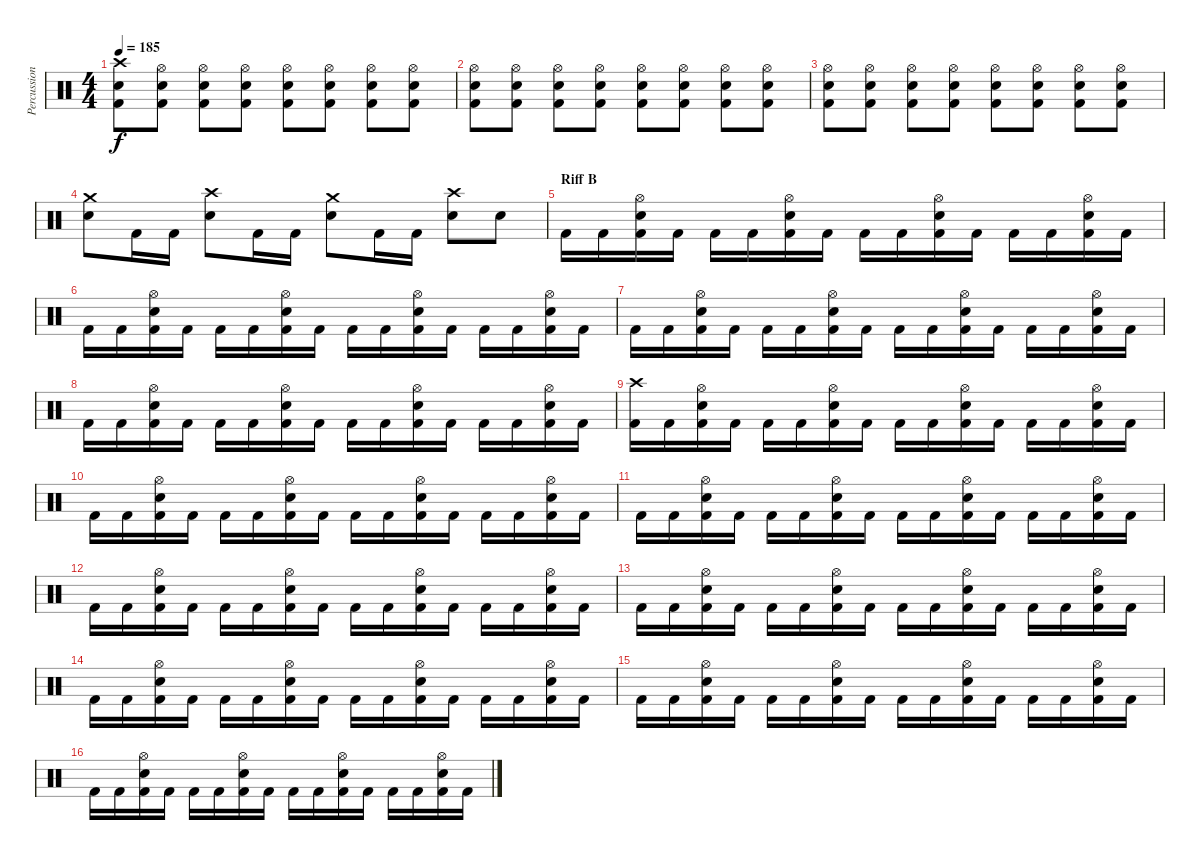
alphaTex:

\track ("Percussions" "Percussion") {instrument percussion}
\staff {score}
\articulation defaults
\ts (4 4)
\tempo 185
\clef neutral
\ks c
("Crash high (hit)" "Snare (hit) 2" "Kick (hit) 2").8{dy f} ("Hi-Hat (open)" "Snare (hit) 2" "Kick (hit) 2").8 ("Hi-Hat (open)" "Snare (hit) 2" "Kick (hit) 2").8 ("Hi-Hat (open)" "Snare (hit) 2" "Kick (hit) 2").8 ("Hi-Hat (open)" "Snare (hit) 2" "Kick (hit) 2").8 ("Hi-Hat (open)" "Snare (hit) 2" "Kick (hit) 2").8 ("Hi-Hat (open)" "Snare (hit) 2" "Kick (hit) 2").8 ("Hi-Hat (open)" "Snare (hit) 2" "Kick (hit) 2").8 |
("Hi-Hat (open)" "Snare (hit) 2" "Kick (hit) 2").8 ("Hi-Hat (open)" "Snare (hit) 2" "Kick (hit) 2").8 ("Hi-Hat (open)" "Snare (hit) 2" "Kick (hit) 2").8 ("Hi-Hat (open)" "Snare (hit) 2" "Kick (hit) 2").8 ("Hi-Hat (open)" "Snare (hit) 2" "Kick (hit) 2").8 ("Hi-Hat (open)" "Snare (hit) 2" "Kick (hit) 2").8 ("Hi-Hat (open)" "Snare (hit) 2" "Kick (hit) 2").8 ("Hi-Hat (open)" "Snare (hit) 2" "Kick (hit) 2").8 |
("Hi-Hat (open)" "Snare (hit) 2" "Kick (hit) 2").8 ("Hi-Hat (open)" "Snare (hit) 2" "Kick (hit) 2").8 ("Hi-Hat (open)" "Snare (hit) 2" "Kick (hit) 2").8 ("Hi-Hat (open)" "Snare (hit) 2" "Kick (hit) 2").8 ("Hi-Hat (open)" "Snare (hit) 2" "Kick (hit) 2").8 ("Hi-Hat (open)" "Snare (hit) 2" "Kick (hit) 2").8 ("Hi-Hat (open)" "Snare (hit) 2" "Kick (hit) 2").8 ("Hi-Hat (open)" "Snare (hit) 2" "Kick (hit) 2").8 |
("Crash medium (hit)" "Snare (hit) 2").8 "Kick (hit) 2".16 "Kick (hit) 2".16 ("Crash high (hit)" "Snare (hit) 2").8 "Kick (hit) 2".16 "Kick (hit) 2".16 ("Crash medium (hit)" "Snare (hit) 2").8 "Kick (hit) 2".16 "Kick (hit) 2".16 ("Crash high (hit)" "Snare (hit) 2").8 "Snare (hit) 2".8 |
\section ("" "Riff B")
"Kick (hit) 2".16 "Kick (hit) 2".16 ("Hi-Hat (open)" "Snare (hit) 2" "Kick (hit) 2").16 "Kick (hit) 2".16 "Kick (hit) 2".16 "Kick (hit) 2".16 ("Hi-Hat (open)" "Snare (hit) 2" "Kick (hit) 2").16 "Kick (hit) 2".16 "Kick (hit) 2".16 "Kick (hit) 2".16 ("Hi-Hat (open)" "Snare (hit) 2" "Kick (hit) 2").16 "Kick (hit) 2".16 "Kick (hit) 2".16 "Kick (hit) 2".16 ("Hi-Hat (open)" "Snare (hit) 2" "Kick (hit) 2").16 "Kick (hit) 2".16 |
"Kick (hit) 2".16 "Kick (hit) 2".16 ("Hi-Hat (open)" "Snare (hit) 2" "Kick (hit) 2").16 "Kick (hit) 2".16 "Kick (hit) 2".16 "Kick (hit) 2".16 ("Hi-Hat (open)" "Snare (hit) 2" "Kick (hit) 2").16 "Kick (hit) 2".16 "Kick (hit) 2".16 "Kick (hit) 2".16 ("Hi-Hat (open)" "Snare (hit) 2" "Kick (hit) 2").16 "Kick (hit) 2".16 "Kick (hit) 2".16 "Kick (hit) 2".16 ("Hi-Hat (open)" "Snare (hit) 2" "Kick (hit) 2").16 "Kick (hit) 2".16 |
"Kick (hit) 2".16 "Kick (hit) 2".16 ("Hi-Hat (open)" "Snare (hit) 2" "Kick (hit) 2").16 "Kick (hit) 2".16 "Kick (hit) 2".16 "Kick (hit) 2".16 ("Hi-Hat (open)" "Snare (hit) 2" "Kick (hit) 2").16 "Kick (hit) 2".16 "Kick (hit) 2".16 "Kick (hit) 2".16 ("Hi-Hat (open)" "Snare (hit) 2" "Kick (hit) 2").16 "Kick (hit) 2".16 "Kick (hit) 2".16 "Kick (hit) 2".16 ("Hi-Hat (open)" "Snare (hit) 2" "Kick (hit) 2").16 "Kick (hit) 2".16 |
"Kick (hit) 2".16 "Kick (hit) 2".16 ("Hi-Hat (open)" "Snare (hit) 2" "Kick (hit) 2").16 "Kick (hit) 2".16 "Kick (hit) 2".16 "Kick (hit) 2".16 ("Hi-Hat (open)" "Snare (hit) 2" "Kick (hit) 2").16 "Kick (hit) 2".16 "Kick (hit) 2".16 "Kick (hit) 2".16 ("Hi-Hat (open)" "Snare (hit) 2" "Kick (hit) 2").16 "Kick (hit) 2".16 "Kick (hit) 2".16 "Kick (hit) 2".16 ("Hi-Hat (open)" "Snare (hit) 2" "Kick (hit) 2").16 "Kick (hit) 2".16 |
("Crash high (hit)" "Kick (hit) 2").16 "Kick (hit) 2".16 ("Hi-Hat (open)" "Snare (hit) 2" "Kick (hit) 2").16 "Kick (hit) 2".16 "Kick (hit) 2".16 "Kick (hit) 2".16 ("Hi-Hat (open)" "Snare (hit) 2" "Kick (hit) 2").16 "Kick (hit) 2".16 "Kick (hit) 2".16 "Kick (hit) 2".16 ("Hi-Hat (open)" "Snare (hit) 2" "Kick (hit) 2").16 "Kick (hit) 2".16 "Kick (hit) 2".16 "Kick (hit) 2".16 ("Hi-Hat (open)" "Snare (hit) 2" "Kick (hit) 2").16 "Kick (hit) 2".16 |
"Kick (hit) 2".16 "Kick (hit) 2".16 ("Hi-Hat (open)" "Snare (hit) 2" "Kick (hit) 2").16 "Kick (hit) 2".16 "Kick (hit) 2".16 "Kick (hit) 2".16 ("Hi-Hat (open)" "Snare (hit) 2" "Kick (hit) 2").16 "Kick (hit) 2".16 "Kick (hit) 2".16 "Kick (hit) 2".16 ("Hi-Hat (open)" "Snare (hit) 2" "Kick (hit) 2").16 "Kick (hit) 2".16 "Kick (hit) 2".16 "Kick (hit) 2".16 ("Hi-Hat (open)" "Snare (hit) 2" "Kick (hit) 2").16 "Kick (hit) 2".16 |
"Kick (hit) 2".16 "Kick (hit) 2".16 ("Hi-Hat (open)" "Snare (hit) 2" "Kick (hit) 2").16 "Kick (hit) 2".16 "Kick (hit) 2".16 "Kick (hit) 2".16 ("Hi-Hat (open)" "Snare (hit) 2" "Kick (hit) 2").16 "Kick (hit) 2".16 "Kick (hit) 2".16 "Kick (hit) 2".16 ("Hi-Hat (open)" "Snare (hit) 2" "Kick (hit) 2").16 "Kick (hit) 2".16 "Kick (hit) 2".16 "Kick (hit) 2".16 ("Hi-Hat (open)" "Snare (hit) 2" "Kick (hit) 2").16 "Kick (hit) 2".16 |
"Kick (hit) 2".16 "Kick (hit) 2".16 ("Hi-Hat (open)" "Snare (hit) 2" "Kick (hit) 2").16 "Kick (hit) 2".16 "Kick (hit) 2".16 "Kick (hit) 2".16 ("Hi-Hat (open)" "Snare (hit) 2" "Kick (hit) 2").16 "Kick (hit) 2".16 "Kick (hit) 2".16 "Kick (hit) 2".16 ("Hi-Hat (open)" "Snare (hit) 2" "Kick (hit) 2").16 "Kick (hit) 2".16 "Kick (hit) 2".16 "Kick (hit) 2".16 ("Hi-Hat (open)" "Snare (hit) 2" "Kick (hit) 2").16 "Kick (hit) 2".16 |
"Kick (hit) 2".16 "Kick (hit) 2".16 ("Hi-Hat (open)" "Snare (hit) 2" "Kick (hit) 2").16 "Kick (hit) 2".16 "Kick (hit) 2".16 "Kick (hit) 2".16 ("Hi-Hat (open)" "Snare (hit) 2" "Kick (hit) 2").16 "Kick (hit) 2".16 "Kick (hit) 2".16 "Kick (hit) 2".16 ("Hi-Hat (open)" "Snare (hit) 2" "Kick (hit) 2").16 "Kick (hit) 2".16 "Kick (hit) 2".16 "Kick (hit) 2".16 ("Hi-Hat (open)" "Snare (hit) 2" "Kick (hit) 2").16 "Kick (hit) 2".16 |
"Kick (hit) 2".16 "Kick (hit) 2".16 ("Hi-Hat (open)" "Snare (hit) 2" "Kick (hit) 2").16 "Kick (hit) 2".16 "Kick (hit) 2".16 "Kick (hit) 2".16 ("Hi-Hat (open)" "Snare (hit) 2" "Kick (hit) 2").16 "Kick (hit) 2".16 "Kick (hit) 2".16 "Kick (hit) 2".16 ("Hi-Hat (open)" "Snare (hit) 2" "Kick (hit) 2").16 "Kick (hit) 2".16 "Kick (hit) 2".16 "Kick (hit) 2".16 ("Hi-Hat (open)" "Snare (hit) 2" "Kick (hit) 2").16 "Kick (hit) 2".16 |
"Kick (hit) 2".16 "Kick (hit) 2".16 ("Hi-Hat (open)" "Snare (hit) 2" "Kick (hit) 2").16 "Kick (hit) 2".16 "Kick (hit) 2".16 "Kick (hit) 2".16 ("Hi-Hat (open)" "Snare (hit) 2" "Kick (hit) 2").16 "Kick (hit) 2".16 "Kick (hit) 2".16 "Kick (hit) 2".16 ("Hi-Hat (open)" "Snare (hit) 2" "Kick (hit) 2").16 "Kick (hit) 2".16 "Kick (hit) 2".16 "Kick (hit) 2".16 ("Hi-Hat (open)" "Snare (hit) 2" "Kick (hit) 2").16 "Kick (hit) 2".16 |
"Kick (hit) 2".16 "Kick (hit) 2".16 ("Hi-Hat (open)" "Snare (hit) 2" "Kick (hit) 2").16 "Kick (hit) 2".16 "Kick (hit) 2".16 "Kick (hit) 2".16 ("Hi-Hat (open)" "Snare (hit) 2" "Kick (hit) 2").16 "Kick (hit) 2".16 "Kick (hit) 2".16 "Kick (hit) 2".16 ("Hi-Hat (open)" "Snare (hit) 2" "Kick (hit) 2").16 "Kick (hit) 2".16 "Kick (hit) 2".16 "Kick (hit) 2".16 ("Hi-Hat (open)" "Snare (hit) 2" "Kick (hit) 2").16 "Kick (hit) 2".16
